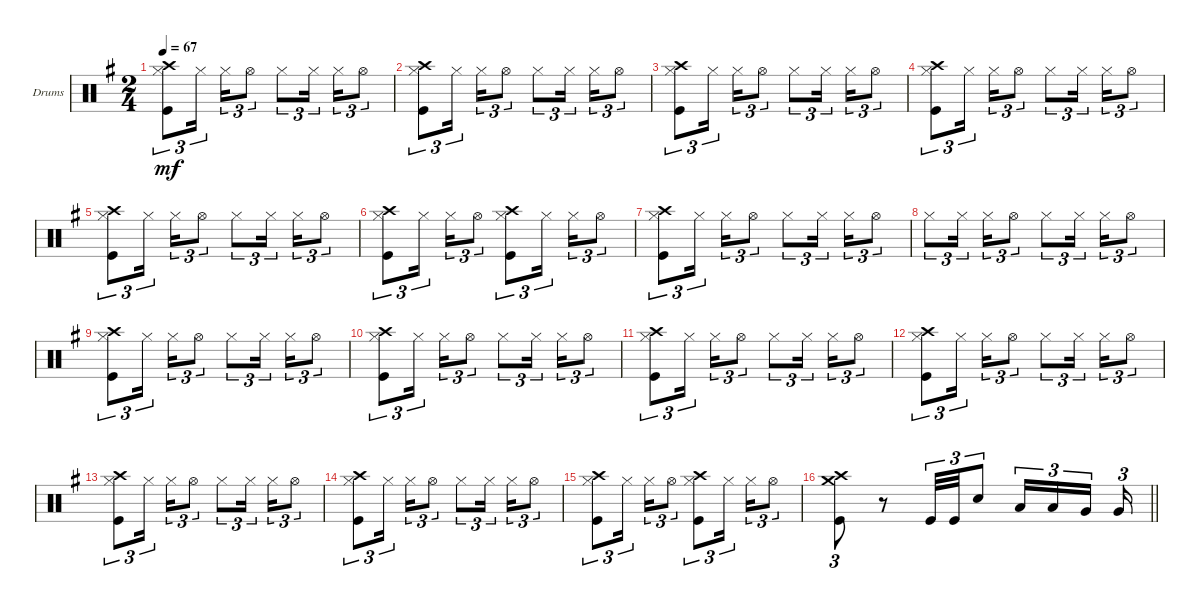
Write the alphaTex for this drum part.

\bracketExtendMode groupsimilarinstruments
\firstSystemTrackNameOrientation horizontal
\otherSystemsTrackNameOrientation horizontal
\track ("drums (Anton Zulganov)" "Drums") {instrument percussion}
\staff {score}
\articulation defaults
\ts (2 4)
\tempo 67
\clef neutral
\ks eminor
("Hi-Hat (closed)" "Kick (hit)" "Crash high (hit)").8{tu (3 2) dy mf} "Hi-Hat (closed)".16{tu (3 2)} "Hi-Hat (closed)".16{tu (3 2)} "Hi-Hat (open)".8{tu (3 2)} "Hi-Hat (closed)".8{tu (3 2)} "Hi-Hat (closed)".16{tu (3 2)} "Hi-Hat (closed)".16{tu (3 2)} "Hi-Hat (open)".8{tu (3 2)} |
("Hi-Hat (closed)" "Kick (hit)" "Crash high (hit)").8{tu (3 2)} "Hi-Hat (closed)".16{tu (3 2)} "Hi-Hat (closed)".16{tu (3 2)} "Hi-Hat (open)".8{tu (3 2)} "Hi-Hat (closed)".8{tu (3 2)} "Hi-Hat (closed)".16{tu (3 2)} "Hi-Hat (closed)".16{tu (3 2)} "Hi-Hat (open)".8{tu (3 2)} |
("Hi-Hat (closed)" "Kick (hit)" "Crash high (hit)").8{tu (3 2)} "Hi-Hat (closed)".16{tu (3 2)} "Hi-Hat (closed)".16{tu (3 2)} "Hi-Hat (open)".8{tu (3 2)} "Hi-Hat (closed)".8{tu (3 2)} "Hi-Hat (closed)".16{tu (3 2)} "Hi-Hat (closed)".16{tu (3 2)} "Hi-Hat (open)".8{tu (3 2)} |
("Hi-Hat (closed)" "Crash high (hit)" "Kick (hit)").8{tu (3 2)} "Hi-Hat (closed)".16{tu (3 2)} "Hi-Hat (closed)".16{tu (3 2)} "Hi-Hat (open)".8{tu (3 2)} "Hi-Hat (closed)".8{tu (3 2)} "Hi-Hat (closed)".16{tu (3 2)} "Hi-Hat (closed)".16{tu (3 2)} "Hi-Hat (open)".8{tu (3 2)} |
("Hi-Hat (closed)" "Kick (hit)" "Crash high (hit)").8{tu (3 2)} "Hi-Hat (closed)".16{tu (3 2)} "Hi-Hat (closed)".16{tu (3 2)} "Hi-Hat (open)".8{tu (3 2)} "Hi-Hat (closed)".8{tu (3 2)} "Hi-Hat (closed)".16{tu (3 2)} "Hi-Hat (closed)".16{tu (3 2)} "Hi-Hat (open)".8{tu (3 2)} |
("Hi-Hat (closed)" "Crash high (hit)" "Kick (hit)").8{tu (3 2)} "Hi-Hat (closed)".16{tu (3 2)} "Hi-Hat (closed)".16{tu (3 2)} "Hi-Hat (open)".8{tu (3 2)} ("Hi-Hat (closed)" "Kick (hit)" "Crash high (hit)").8{tu (3 2)} "Hi-Hat (closed)".16{tu (3 2)} "Hi-Hat (closed)".16{tu (3 2)} "Hi-Hat (open)".8{tu (3 2)} |
("Hi-Hat (closed)" "Crash high (hit)" "Kick (hit)").8{tu (3 2)} "Hi-Hat (closed)".16{tu (3 2)} "Hi-Hat (closed)".16{tu (3 2)} "Hi-Hat (open)".8{tu (3 2)} "Hi-Hat (closed)".8{tu (3 2)} "Hi-Hat (closed)".16{tu (3 2)} "Hi-Hat (closed)".16{tu (3 2)} "Hi-Hat (open)".8{tu (3 2)} |
"Hi-Hat (closed)".8{tu (3 2)} "Hi-Hat (closed)".16{tu (3 2)} "Hi-Hat (closed)".16{tu (3 2)} "Hi-Hat (open)".8{tu (3 2)} "Hi-Hat (closed)".8{tu (3 2)} "Hi-Hat (closed)".16{tu (3 2)} "Hi-Hat (closed)".16{tu (3 2)} "Hi-Hat (open)".8{tu (3 2)} |
("Hi-Hat (closed)" "Crash high (hit)" "Kick (hit)").8{tu (3 2)} "Hi-Hat (closed)".16{tu (3 2)} "Hi-Hat (closed)".16{tu (3 2)} "Hi-Hat (open)".8{tu (3 2)} "Hi-Hat (closed)".8{tu (3 2)} "Hi-Hat (closed)".16{tu (3 2)} "Hi-Hat (closed)".16{tu (3 2)} "Hi-Hat (open)".8{tu (3 2)} |
("Hi-Hat (closed)" "Crash high (hit)" "Kick (hit)").8{tu (3 2)} "Hi-Hat (closed)".16{tu (3 2)} "Hi-Hat (closed)".16{tu (3 2)} "Hi-Hat (open)".8{tu (3 2)} "Hi-Hat (closed)".8{tu (3 2)} "Hi-Hat (closed)".16{tu (3 2)} "Hi-Hat (closed)".16{tu (3 2)} "Hi-Hat (open)".8{tu (3 2)} |
("Hi-Hat (closed)" "Crash high (hit)" "Kick (hit)").8{tu (3 2)} "Hi-Hat (closed)".16{tu (3 2)} "Hi-Hat (closed)".16{tu (3 2)} "Hi-Hat (open)".8{tu (3 2)} "Hi-Hat (closed)".8{tu (3 2)} "Hi-Hat (closed)".16{tu (3 2)} "Hi-Hat (closed)".16{tu (3 2)} "Hi-Hat (open)".8{tu (3 2)} |
("Hi-Hat (closed)" "Crash high (hit)" "Kick (hit)").8{tu (3 2)} "Hi-Hat (closed)".16{tu (3 2)} "Hi-Hat (closed)".16{tu (3 2)} "Hi-Hat (open)".8{tu (3 2)} "Hi-Hat (closed)".8{tu (3 2)} "Hi-Hat (closed)".16{tu (3 2)} "Hi-Hat (closed)".16{tu (3 2)} "Hi-Hat (open)".8{tu (3 2)} |
("Hi-Hat (closed)" "Crash high (hit)" "Kick (hit)").8{tu (3 2)} "Hi-Hat (closed)".16{tu (3 2)} "Hi-Hat (closed)".16{tu (3 2)} "Hi-Hat (open)".8{tu (3 2)} "Hi-Hat (closed)".8{tu (3 2)} "Hi-Hat (closed)".16{tu (3 2)} "Hi-Hat (closed)".16{tu (3 2)} "Hi-Hat (open)".8{tu (3 2)} |
("Hi-Hat (closed)" "Crash high (hit)" "Kick (hit)").8{tu (3 2)} "Hi-Hat (closed)".16{tu (3 2)} "Hi-Hat (closed)".16{tu (3 2)} "Hi-Hat (open)".8{tu (3 2)} "Hi-Hat (closed)".8{tu (3 2)} "Hi-Hat (closed)".16{tu (3 2)} "Hi-Hat (closed)".16{tu (3 2)} "Hi-Hat (open)".8{tu (3 2)} |
("Hi-Hat (closed)" "Kick (hit)" "Crash high (hit)").8{tu (3 2)} "Hi-Hat (closed)".16{tu (3 2)} "Hi-Hat (closed)".16{tu (3 2)} "Hi-Hat (open)".8{tu (3 2)} ("Hi-Hat (closed)" "Kick (hit)" "Crash high (hit)").8{tu (3 2)} "Hi-Hat (closed)".16{tu (3 2)} "Hi-Hat (closed)".16{tu (3 2)} "Hi-Hat (open)".8{tu (3 2)} |
\barLineRight lightlight
("Kick (hit)" "Crash medium (hit)" "Crash high (hit)").8{tu (3 2)} r.8 "Kick (hit)".32{tu (3 2)} "Kick (hit)".32{tu (3 2)} "Snare (hit) 2".8{tu (3 2)} "Low Tom (hit)".16{tu (3 2)} "Low Tom (hit)".16{tu (3 2)} "Very Low Tom (hit)".16{tu (3 2)} "Very Low Tom (hit)".16{tu (3 2)}
